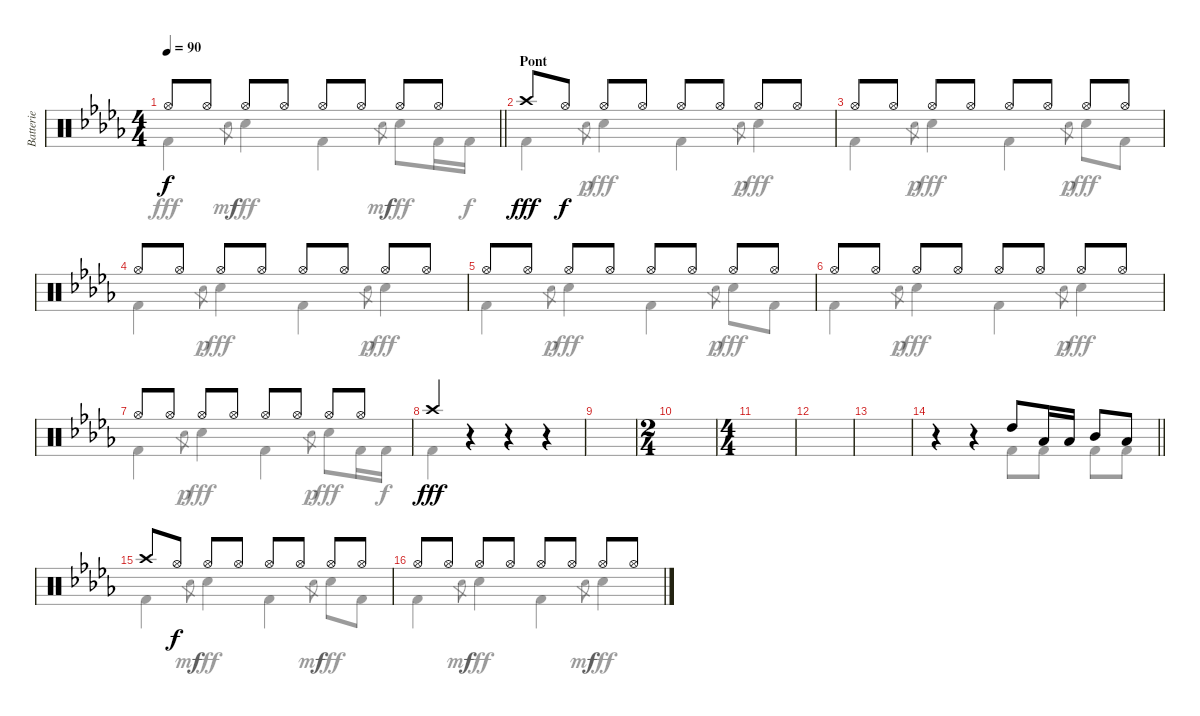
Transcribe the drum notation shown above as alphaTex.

\track ("Batterie" "Batterie") {instrument percussion}
\staff {score}
\articulation defaults
\voice
\ts (4 4)
\tempo 90
\clef neutral
\barLineRight lightlight
\ks db "Hi-Hat (open)".8{dy f} "Hi-Hat (open)".8 "Hi-Hat (open)".8 "Hi-Hat (open)".8 "Hi-Hat (open)".8 "Hi-Hat (open)".8 "Hi-Hat (open)".8 "Hi-Hat (open)".8
|
\section ("" "Pont")
"Crash high (hit)".8{dy fff} "Hi-Hat (open)".8{dy f} "Hi-Hat (open)".8 "Hi-Hat (open)".8 "Hi-Hat (open)".8 "Hi-Hat (open)".8 "Hi-Hat (open)".8 "Hi-Hat (open)".8 |
"Hi-Hat (open)".8 "Hi-Hat (open)".8 "Hi-Hat (open)".8 "Hi-Hat (open)".8 "Hi-Hat (open)".8 "Hi-Hat (open)".8 "Hi-Hat (open)".8 "Hi-Hat (open)".8 |
"Hi-Hat (open)".8 "Hi-Hat (open)".8 "Hi-Hat (open)".8 "Hi-Hat (open)".8 "Hi-Hat (open)".8 "Hi-Hat (open)".8 "Hi-Hat (open)".8 "Hi-Hat (open)".8 |
"Hi-Hat (open)".8 "Hi-Hat (open)".8 "Hi-Hat (open)".8 "Hi-Hat (open)".8 "Hi-Hat (open)".8 "Hi-Hat (open)".8 "Hi-Hat (open)".8 "Hi-Hat (open)".8 |
"Hi-Hat (open)".8 "Hi-Hat (open)".8 "Hi-Hat (open)".8 "Hi-Hat (open)".8 "Hi-Hat (open)".8 "Hi-Hat (open)".8 "Hi-Hat (open)".8 "Hi-Hat (open)".8 |
"Hi-Hat (open)".8 "Hi-Hat (open)".8 "Hi-Hat (open)".8 "Hi-Hat (open)".8 "Hi-Hat (open)".8 "Hi-Hat (open)".8 "Hi-Hat (open)".8 "Hi-Hat (open)".8 |
"Crash high (hit)".4{dy fff} r.4 r.4 r.4 |
|
\ts (2 4)
|
\ts (4 4)
|
|
|
\barLineRight lightlight
r.4 r.4 "High Tom (hit)".8 "Low Tom (hit)".16 "Low Tom (hit)".16 "Mid Tom (hit)".8 "Low Tom (hit)".8 |
"Crash high (hit)".8 "Hi-Hat (open)".8{dy f} "Hi-Hat (open)".8 "Hi-Hat (open)".8 "Hi-Hat (open)".8 "Hi-Hat (open)".8 "Hi-Hat (open)".8 "Hi-Hat (open)".8 |
"Hi-Hat (open)".8 "Hi-Hat (open)".8 "Hi-Hat (open)".8 "Hi-Hat (open)".8 "Hi-Hat (open)".8 "Hi-Hat (open)".8 "Hi-Hat (open)".8 "Hi-Hat (open)".8
\voice
\clef neutral
\ottava regular
\simile none
\barLineRight lightlight
\ks db "Kick (hit) 2".4{dy fff} "Hand Clap (hit)".8{gr dy mf} "Hand Clap (hit)".4{dy fff} "Kick (hit) 2".4 "Hand Clap (hit)".8{gr dy mf} "Hand Clap (hit)".8{dy fff} "Kick (hit) 2".16 "Kick (hit) 2".16{dy f}
|
"Kick (hit) 2".4{dy fff} "Hand Clap (hit)".8{gr dy p} "Hand Clap (hit)".4{dy fff} "Kick (hit) 2".4 "Hand Clap (hit)".8{gr dy p} "Hand Clap (hit)".4{dy fff} |
"Kick (hit) 2".4 "Hand Clap (hit)".8{gr dy p} "Hand Clap (hit)".4{dy fff} "Kick (hit) 2".4 "Hand Clap (hit)".8{gr dy p} "Hand Clap (hit)".8{dy fff} "Kick (hit) 2".8 |
"Kick (hit) 2".4 "Hand Clap (hit)".8{gr dy p} "Hand Clap (hit)".4{dy fff} "Kick (hit) 2".4 "Hand Clap (hit)".8{gr dy p} "Hand Clap (hit)".4{dy fff} |
"Kick (hit) 2".4 "Hand Clap (hit)".8{gr dy p} "Hand Clap (hit)".4{dy fff} "Kick (hit) 2".4 "Hand Clap (hit)".8{gr dy p} "Hand Clap (hit)".8{dy fff} "Kick (hit) 2".8 |
"Kick (hit) 2".4 "Hand Clap (hit)".8{gr dy p} "Hand Clap (hit)".4{dy fff} "Kick (hit) 2".4 "Hand Clap (hit)".8{gr dy p} "Hand Clap (hit)".4{dy fff} |
"Kick (hit) 2".4 "Hand Clap (hit)".8{gr dy p} "Hand Clap (hit)".4{dy fff} "Kick (hit) 2".4 "Hand Clap (hit)".8{gr dy p} "Hand Clap (hit)".8{dy fff} "Kick (hit) 2".16 "Kick (hit) 2".16{dy f} |
"Kick (hit) 2".4{dy fff} r.4 r.4 r.4 |
|
|
|
|
|
\barLineRight lightlight
r.4 r.4 "Kick (hit) 2".8 "Kick (hit) 2".8 "Kick (hit) 2".8 "Kick (hit) 2".8 |
"Kick (hit) 2".4 "Hand Clap (hit)".8{gr dy mf} "Hand Clap (hit)".4{dy fff} "Kick (hit) 2".4 "Hand Clap (hit)".8{gr dy mf} "Hand Clap (hit)".8{dy fff} "Kick (hit) 2".8 |
"Kick (hit) 2".4 "Hand Clap (hit)".8{gr dy mf} "Hand Clap (hit)".4{dy fff} "Kick (hit) 2".4 "Hand Clap (hit)".8{gr dy mf} "Hand Clap (hit)".4{dy fff}
